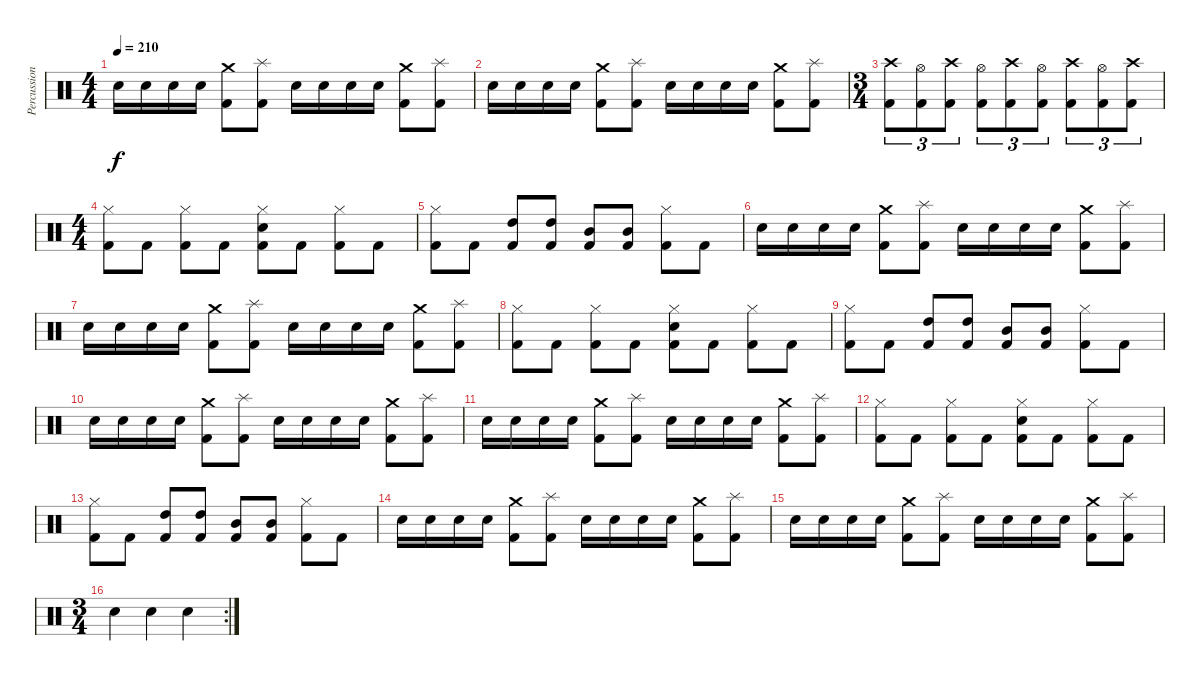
\track ("Percussion" "Percussion") {instrument percussion}
\staff {score}
\articulation defaults
\ts (4 4)
\tempo 210
\clef neutral
\ks c "Snare (hit) 2".16{dy f} "Snare (hit) 2".16 "Snare (hit) 2".16 "Snare (hit) 2".16
("Kick (hit) 2" "Crash medium (hit)").8 ("Kick (hit) 2" "Splash (hit)").8 "Snare (hit) 2".16 "Snare (hit) 2".16 "Snare (hit) 2".16 "Snare (hit) 2".16 ("Kick (hit) 2" "Crash medium (hit)").8 ("Kick (hit) 2" "Splash (hit)").8 |
"Snare (hit) 2".16 "Snare (hit) 2".16 "Snare (hit) 2".16 "Snare (hit) 2".16 ("Kick (hit) 2" "Crash medium (hit)").8 ("Kick (hit) 2" "Splash (hit)").8 "Snare (hit) 2".16 "Snare (hit) 2".16 "Snare (hit) 2".16 "Snare (hit) 2".16 ("Kick (hit) 2" "Crash medium (hit)").8 ("Kick (hit) 2" "Splash (hit)").8 |
\ts (3 4)
("Crash high (hit)" "Kick (hit) 2").8{tu (3 2)} ("Hi-Hat (open)" "Kick (hit) 2").8{tu (3 2)} ("Crash high (hit)" "Kick (hit) 2").8{tu (3 2)} ("Hi-Hat (open)" "Kick (hit) 2").8{tu (3 2)} ("Crash high (hit)" "Kick (hit) 2").8{tu (3 2)} ("Hi-Hat (open)" "Kick (hit) 2").8{tu (3 2)} ("Crash high (hit)" "Kick (hit) 2").8{tu (3 2)} ("Hi-Hat (open)" "Kick (hit) 2").8{tu (3 2)} ("Crash high (hit)" "Kick (hit) 2").8{tu (3 2)} |
\ts (4 4)
("Hi-Hat (closed)" "Kick (hit) 2").8 "Kick (hit) 2".8 ("Hi-Hat (closed)" "Kick (hit) 2").8 "Kick (hit) 2".8 ("Hi-Hat (closed)" "Snare (hit) 2" "Kick (hit) 2").8 "Kick (hit) 2".8 ("Hi-Hat (closed)" "Kick (hit) 2").8 "Kick (hit) 2".8 |
("Hi-Hat (closed)" "Kick (hit) 2").8 "Kick (hit) 2".8 ("High Tom (hit)" "Kick (hit) 2").8 ("High Tom (hit)" "Kick (hit) 2").8 ("Mid Tom (hit)" "Kick (hit) 2").8 ("Mid Tom (hit)" "Kick (hit) 2").8 ("Hi-Hat (closed)" "Kick (hit) 2").8 "Kick (hit) 2".8 |
"Snare (hit) 2".16 "Snare (hit) 2".16 "Snare (hit) 2".16 "Snare (hit) 2".16 ("Kick (hit) 2" "Crash medium (hit)").8 ("Kick (hit) 2" "Splash (hit)").8 "Snare (hit) 2".16 "Snare (hit) 2".16 "Snare (hit) 2".16 "Snare (hit) 2".16 ("Kick (hit) 2" "Crash medium (hit)").8 ("Kick (hit) 2" "Splash (hit)").8 |
"Snare (hit) 2".16 "Snare (hit) 2".16 "Snare (hit) 2".16 "Snare (hit) 2".16 ("Kick (hit) 2" "Crash medium (hit)").8 ("Kick (hit) 2" "Splash (hit)").8 "Snare (hit) 2".16 "Snare (hit) 2".16 "Snare (hit) 2".16 "Snare (hit) 2".16 ("Kick (hit) 2" "Crash medium (hit)").8 ("Kick (hit) 2" "Splash (hit)").8 |
("Hi-Hat (closed)" "Kick (hit) 2").8 "Kick (hit) 2".8 ("Hi-Hat (closed)" "Kick (hit) 2").8 "Kick (hit) 2".8 ("Hi-Hat (closed)" "Snare (hit) 2" "Kick (hit) 2").8 "Kick (hit) 2".8 ("Hi-Hat (closed)" "Kick (hit) 2").8 "Kick (hit) 2".8 |
("Hi-Hat (closed)" "Kick (hit) 2").8 "Kick (hit) 2".8 ("High Tom (hit)" "Kick (hit) 2").8 ("High Tom (hit)" "Kick (hit) 2").8 ("Mid Tom (hit)" "Kick (hit) 2").8 ("Mid Tom (hit)" "Kick (hit) 2").8 ("Hi-Hat (closed)" "Kick (hit) 2").8 "Kick (hit) 2".8 |
"Snare (hit) 2".16 "Snare (hit) 2".16 "Snare (hit) 2".16 "Snare (hit) 2".16 ("Kick (hit) 2" "Crash medium (hit)").8 ("Kick (hit) 2" "Splash (hit)").8 "Snare (hit) 2".16 "Snare (hit) 2".16 "Snare (hit) 2".16 "Snare (hit) 2".16 ("Kick (hit) 2" "Crash medium (hit)").8 ("Kick (hit) 2" "Splash (hit)").8 |
"Snare (hit) 2".16 "Snare (hit) 2".16 "Snare (hit) 2".16 "Snare (hit) 2".16 ("Kick (hit) 2" "Crash medium (hit)").8 ("Kick (hit) 2" "Splash (hit)").8 "Snare (hit) 2".16 "Snare (hit) 2".16 "Snare (hit) 2".16 "Snare (hit) 2".16 ("Kick (hit) 2" "Crash medium (hit)").8 ("Kick (hit) 2" "Splash (hit)").8 |
("Hi-Hat (closed)" "Kick (hit) 2").8 "Kick (hit) 2".8 ("Hi-Hat (closed)" "Kick (hit) 2").8 "Kick (hit) 2".8 ("Hi-Hat (closed)" "Snare (hit) 2" "Kick (hit) 2").8 "Kick (hit) 2".8 ("Hi-Hat (closed)" "Kick (hit) 2").8 "Kick (hit) 2".8 |
("Hi-Hat (closed)" "Kick (hit) 2").8 "Kick (hit) 2".8 ("High Tom (hit)" "Kick (hit) 2").8 ("High Tom (hit)" "Kick (hit) 2").8 ("Mid Tom (hit)" "Kick (hit) 2").8 ("Mid Tom (hit)" "Kick (hit) 2").8 ("Hi-Hat (closed)" "Kick (hit) 2").8 "Kick (hit) 2".8 |
"Snare (hit) 2".16 "Snare (hit) 2".16 "Snare (hit) 2".16 "Snare (hit) 2".16 ("Kick (hit) 2" "Crash medium (hit)").8 ("Kick (hit) 2" "Splash (hit)").8 "Snare (hit) 2".16 "Snare (hit) 2".16 "Snare (hit) 2".16 "Snare (hit) 2".16 ("Kick (hit) 2" "Crash medium (hit)").8 ("Kick (hit) 2" "Splash (hit)").8 |
"Snare (hit) 2".16 "Snare (hit) 2".16 "Snare (hit) 2".16 "Snare (hit) 2".16 ("Kick (hit) 2" "Crash medium (hit)").8 ("Kick (hit) 2" "Splash (hit)").8 "Snare (hit) 2".16 "Snare (hit) 2".16 "Snare (hit) 2".16 "Snare (hit) 2".16 ("Kick (hit) 2" "Crash medium (hit)").8 ("Kick (hit) 2" "Splash (hit)").8 |
\rc 2
\ts (3 4)
"Snare (hit) 2".4 "Snare (hit) 2".4 "Snare (hit) 2".4
